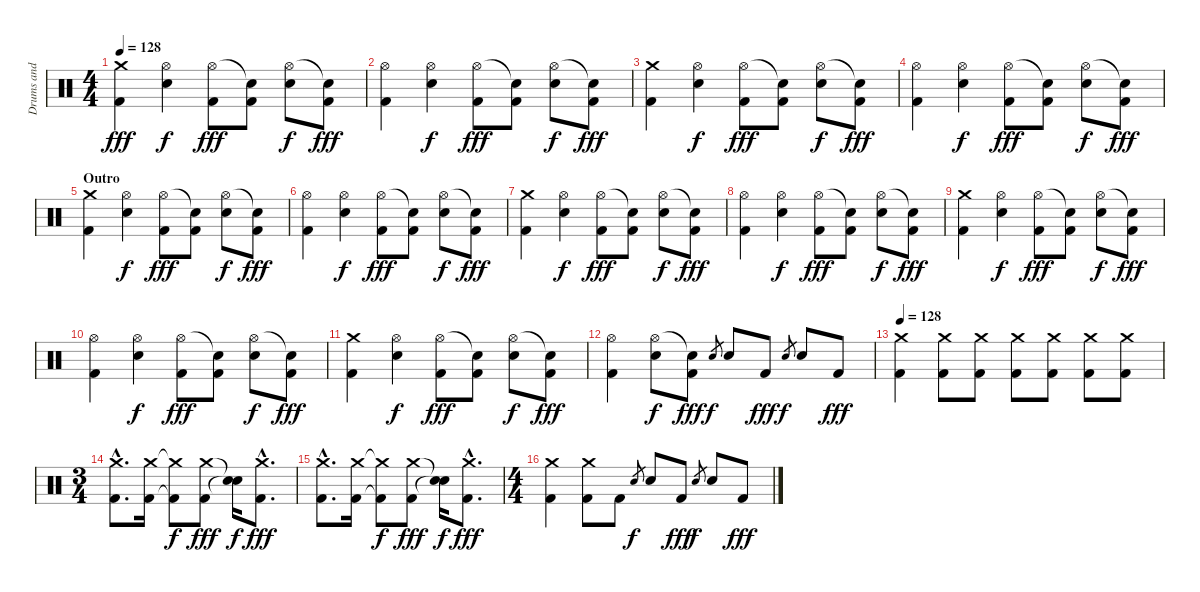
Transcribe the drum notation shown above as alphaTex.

\track ("Drums and Percussion" "Drums and ") {instrument percussion}
\staff {score}
\articulation defaults
\ts (4 4)
\tempo 128
\clef neutral
\ks c
("Crash medium (hit)" "Kick (hit) 2").4{dy fff} ("Hi-Hat (open)" "Electric Snare (hit)").4{dy f} ("Hi-Hat (open)" "Kick (hit) 2").8{dy fff} ("Snare (hit)"{t} "Kick (hit) 2").8 ("Hi-Hat (open)" "Electric Snare (hit)").8{dy f} ("Snare (hit)"{t} "Kick (hit) 2").8{dy fff} |
("Hi-Hat (open)" "Kick (hit) 2").4 ("Hi-Hat (open)" "Electric Snare (hit)").4{dy f} ("Hi-Hat (open)" "Kick (hit) 2").8{dy fff} ("Snare (hit)"{t} "Kick (hit) 2").8 ("Hi-Hat (open)" "Electric Snare (hit)").8{dy f} ("Snare (hit)"{t} "Kick (hit) 2").8{dy fff} |
("Crash medium (hit)" "Kick (hit) 2").4 ("Hi-Hat (open)" "Electric Snare (hit)").4{dy f} ("Hi-Hat (open)" "Kick (hit) 2").8{dy fff} ("Snare (hit)"{t} "Kick (hit) 2").8 ("Hi-Hat (open)" "Electric Snare (hit)").8{dy f} ("Snare (hit)"{t} "Kick (hit) 2").8{dy fff} |
("Hi-Hat (open)" "Kick (hit) 2").4 ("Hi-Hat (open)" "Electric Snare (hit)").4{dy f} ("Hi-Hat (open)" "Kick (hit) 2").8{dy fff} ("Snare (hit)"{t} "Kick (hit) 2").8 ("Hi-Hat (open)" "Electric Snare (hit)").8{dy f} ("Snare (hit)"{t} "Kick (hit) 2").8{dy fff} |
\section ("" "Outro")
("Crash medium (hit)" "Kick (hit) 2").4 ("Hi-Hat (open)" "Electric Snare (hit)").4{dy f} ("Hi-Hat (open)" "Kick (hit) 2").8{dy fff} ("Snare (hit)"{t} "Kick (hit) 2").8 ("Hi-Hat (open)" "Electric Snare (hit)").8{dy f} ("Snare (hit)"{t} "Kick (hit) 2").8{dy fff} |
("Hi-Hat (open)" "Kick (hit) 2").4 ("Hi-Hat (open)" "Electric Snare (hit)").4{dy f} ("Hi-Hat (open)" "Kick (hit) 2").8{dy fff} ("Snare (hit)"{t} "Kick (hit) 2").8 ("Hi-Hat (open)" "Electric Snare (hit)").8{dy f} ("Snare (hit)"{t} "Kick (hit) 2").8{dy fff} |
("Crash medium (hit)" "Kick (hit) 2").4 ("Hi-Hat (open)" "Electric Snare (hit)").4{dy f} ("Hi-Hat (open)" "Kick (hit) 2").8{dy fff} ("Snare (hit)"{t} "Kick (hit) 2").8 ("Hi-Hat (open)" "Electric Snare (hit)").8{dy f} ("Snare (hit)"{t} "Kick (hit) 2").8{dy fff} |
("Hi-Hat (open)" "Kick (hit) 2").4 ("Hi-Hat (open)" "Electric Snare (hit)").4{dy f} ("Hi-Hat (open)" "Kick (hit) 2").8{dy fff} ("Snare (hit)"{t} "Kick (hit) 2").8 ("Hi-Hat (open)" "Electric Snare (hit)").8{dy f} ("Snare (hit)"{t} "Kick (hit) 2").8{dy fff} |
("Crash medium (hit)" "Kick (hit) 2").4 ("Hi-Hat (open)" "Electric Snare (hit)").4{dy f} ("Hi-Hat (open)" "Kick (hit) 2").8{dy fff} ("Snare (hit)"{t} "Kick (hit) 2").8 ("Hi-Hat (open)" "Electric Snare (hit)").8{dy f} ("Snare (hit)"{t} "Kick (hit) 2").8{dy fff} |
("Hi-Hat (open)" "Kick (hit) 2").4 ("Hi-Hat (open)" "Electric Snare (hit)").4{dy f} ("Hi-Hat (open)" "Kick (hit) 2").8{dy fff} ("Snare (hit)"{t} "Kick (hit) 2").8 ("Hi-Hat (open)" "Electric Snare (hit)").8{dy f} ("Snare (hit)"{t} "Kick (hit) 2").8{dy fff} |
("Crash medium (hit)" "Kick (hit) 2").4 ("Hi-Hat (open)" "Electric Snare (hit)").4{dy f} ("Hi-Hat (open)" "Kick (hit) 2").8{dy fff} ("Snare (hit)"{t} "Kick (hit) 2").8 ("Hi-Hat (open)" "Electric Snare (hit)").8{dy f} ("Snare (hit)"{t} "Kick (hit) 2").8{dy fff} |
("Hi-Hat (open)" "Kick (hit) 2").4 ("Hi-Hat (open)" "Electric Snare (hit)").8{dy f} ("Snare (hit)"{t} "Kick (hit) 2").8{dy fff} "Electric Snare (hit)".8{gr dy f} "Electric Snare (hit)".8 "Kick (hit) 2".8{dy fff} "Electric Snare (hit)".8{gr dy f} "Electric Snare (hit)".8 "Kick (hit) 2".8{dy fff} |
\tempo 128
("Crash medium (hit)" "Kick (hit) 2").4 ("Crash medium (hit)" "Kick (hit) 2").8 ("Crash medium (hit)" "Kick (hit) 2").8 ("Crash medium (hit)" "Kick (hit) 2").8 ("Crash medium (hit)" "Kick (hit) 2").8 ("Crash medium (hit)" "Kick (hit) 2").8 ("Crash medium (hit)" "Kick (hit) 2").8 |
\ts (3 4)
("Crash medium (hit)"{hac} "Kick (hit) 2"{hac}).8{d} ("Crash medium (hit)" "Kick (hit) 2").16 ("Crash medium (hit)"{t} "Kick (hit) 2"{t}).8{dy f} ("Crash medium (hit)" "Kick (hit) 2").8{dy fff} ("Snare (hit)"{t} "Snare (hit)"{t}).16{dy f} ("Crash medium (hit)"{hac} "Kick (hit) 2"{hac}).8{d dy fff} |
("Crash medium (hit)"{hac} "Kick (hit) 2"{hac}).8{d} ("Crash medium (hit)" "Kick (hit) 2").16 ("Crash medium (hit)"{t} "Kick (hit) 2"{t}).8{dy f} ("Crash medium (hit)" "Kick (hit) 2").8{dy fff} ("Snare (hit)"{t} "Snare (hit)"{t}).16{dy f} ("Crash medium (hit)"{hac} "Kick (hit) 2"{hac}).8{d dy fff} |
\ts (4 4)
("Crash medium (hit)" "Kick (hit) 2").4 ("Crash medium (hit)" "Kick (hit) 2").8 "Kick (hit) 2".8 "Electric Snare (hit)".8{gr dy f} "Electric Snare (hit)".8 "Kick (hit) 2".8{dy fff} "Electric Snare (hit)".8{gr dy f} "Electric Snare (hit)".8 "Kick (hit) 2".8{dy fff}
